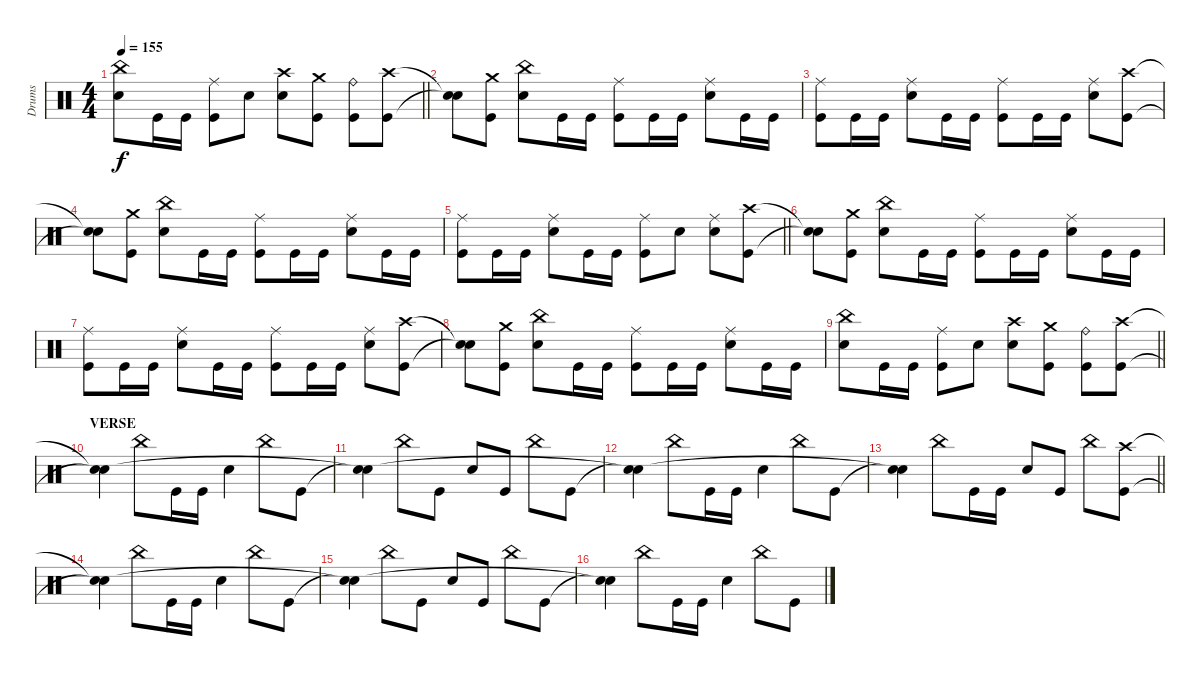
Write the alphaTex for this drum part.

\track ("Drums" "Drums") {instrument percussion}
\staff
\articulation defaults
\ts (4 4)
\tempo 155
\clef neutral
\barLineRight lightlight
\ks c
("China (hit)" "Electric Snare (hit)").8{dy f} "Kick (hit)".16 "Kick (hit)".16 ("Ride (middle)" "Kick (hit)").8 "Electric Snare (hit)".8 ("Crash high (hit)" "Electric Snare (hit)").8 ("Crash medium (hit)" "Kick (hit)").8 ("Ride (bell)" "Kick (hit)").8 ("Crash high (hit)" "Kick (hit)").8 |
("Snare (hit)"{t} "Snare (hit)"{t}).8 ("Crash medium (hit)" "Kick (hit)").8 ("China (hit)" "Electric Snare (hit)").8 "Kick (hit)".16 "Kick (hit)".16 ("Ride (middle)" "Kick (hit)").8 "Kick (hit)".16 "Kick (hit)".16 ("Ride (middle)" "Electric Snare (hit)").8 "Kick (hit)".16 "Kick (hit)".16 |
("Ride (middle)" "Kick (hit)").8 "Kick (hit)".16 "Kick (hit)".16 ("Ride (middle)" "Electric Snare (hit)").8 "Kick (hit)".16 "Kick (hit)".16 ("Ride (middle)" "Kick (hit)").8 "Kick (hit)".16 "Kick (hit)".16 ("Ride (middle)" "Electric Snare (hit)").8 ("Crash high (hit)" "Kick (hit)").8 |
("Snare (hit)"{t} "Snare (hit)"{t}).8 ("Crash medium (hit)" "Kick (hit)").8 ("China (hit)" "Electric Snare (hit)").8 "Kick (hit)".16 "Kick (hit)".16 ("Ride (middle)" "Kick (hit)").8 "Kick (hit)".16 "Kick (hit)".16 ("Ride (middle)" "Electric Snare (hit)").8 "Kick (hit)".16 "Kick (hit)".16 |
\barLineRight lightlight
("Ride (middle)" "Kick (hit)").8 "Kick (hit)".16 "Kick (hit)".16 ("Ride (middle)" "Electric Snare (hit)").8 "Kick (hit)".16 "Kick (hit)".16 ("Ride (middle)" "Kick (hit)").8 "Electric Snare (hit)".8 ("Ride (middle)" "Electric Snare (hit)").8 ("Crash high (hit)" "Kick (hit)").8 |
("Snare (hit)"{t} "Snare (hit)"{t}).8 ("Crash medium (hit)" "Kick (hit)").8 ("China (hit)" "Electric Snare (hit)").8 "Kick (hit)".16 "Kick (hit)".16 ("Ride (middle)" "Kick (hit)").8 "Kick (hit)".16 "Kick (hit)".16 ("Ride (middle)" "Electric Snare (hit)").8 "Kick (hit)".16 "Kick (hit)".16 |
("Ride (middle)" "Kick (hit)").8 "Kick (hit)".16 "Kick (hit)".16 ("Ride (middle)" "Electric Snare (hit)").8 "Kick (hit)".16 "Kick (hit)".16 ("Ride (middle)" "Kick (hit)").8 "Kick (hit)".16 "Kick (hit)".16 ("Ride (middle)" "Electric Snare (hit)").8 ("Crash high (hit)" "Kick (hit)").8 |
("Snare (hit)"{t} "Snare (hit)"{t}).8 ("Crash medium (hit)" "Kick (hit)").8 ("China (hit)" "Electric Snare (hit)").8 "Kick (hit)".16 "Kick (hit)".16 ("Ride (middle)" "Kick (hit)").8 "Kick (hit)".16 "Kick (hit)".16 ("Ride (middle)" "Electric Snare (hit)").8 "Kick (hit)".16 "Kick (hit)".16 |
\barLineRight lightlight
("China (hit)" "Electric Snare (hit)").8 "Kick (hit)".16 "Kick (hit)".16 ("Ride (middle)" "Kick (hit)").8 "Electric Snare (hit)".8 ("Crash high (hit)" "Electric Snare (hit)").8 ("Crash medium (hit)" "Kick (hit)").8 ("Ride (bell)" "Kick (hit)").8 ("Crash high (hit)" "Kick (hit)").8 |
\section ("" "VERSE")
("Snare (hit)"{t} "Snare (hit)"{t}).4 "China (hit)".8 "Kick (hit)".16 "Kick (hit)".16 "Electric Snare (hit)".4 "China (hit)".8 "Kick (hit)".8 |
("Snare (hit)"{t} "Snare (hit)"{t}).4 "China (hit)".8 "Kick (hit)".8 "Electric Snare (hit)".8 "Kick (hit)".8 "China (hit)".8 "Kick (hit)".8 |
("Snare (hit)"{t} "Snare (hit)"{t}).4 "China (hit)".8 "Kick (hit)".16 "Kick (hit)".16 "Electric Snare (hit)".4 "China (hit)".8 "Kick (hit)".8 |
\barLineRight lightlight
("Snare (hit)"{t} "Snare (hit)"{t}).4 "China (hit)".8 "Kick (hit)".16 "Kick (hit)".16 "Electric Snare (hit)".8 "Kick (hit)".8 "China (hit)".8 ("Crash high (hit)" "Kick (hit)").8 |
("Snare (hit)"{t} "Snare (hit)"{t}).4 "China (hit)".8 "Kick (hit)".16 "Kick (hit)".16 "Electric Snare (hit)".4 "China (hit)".8 "Kick (hit)".8 |
("Snare (hit)"{t} "Snare (hit)"{t}).4 "China (hit)".8 "Kick (hit)".8 "Electric Snare (hit)".8 "Kick (hit)".8 "China (hit)".8 "Kick (hit)".8 |
("Snare (hit)"{t} "Snare (hit)"{t}).4 "China (hit)".8 "Kick (hit)".16 "Kick (hit)".16 "Electric Snare (hit)".4 "China (hit)".8 "Kick (hit)".8
